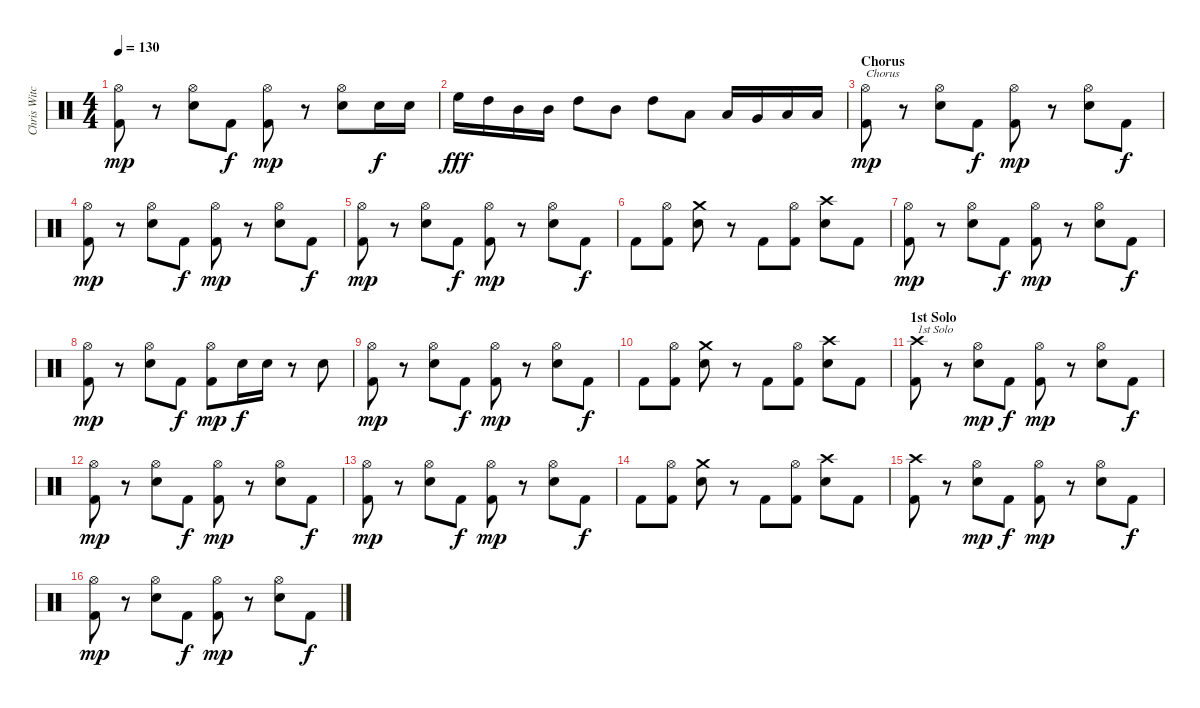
\track ("Chris Witchhunter" "Chris Witc") {instrument percussion}
\staff {score}
\articulation defaults
\ts (4 4)
\tempo 130
\clef neutral
\ks c
("Hi-Hat (open)" "Kick (hit) 2").8{dy mp} r.8 ("Hi-Hat (open)" "Electric Snare (hit)").8 "Kick (hit) 2".8{dy f} ("Hi-Hat (open)" "Kick (hit) 2").8{dy mp} r.8 ("Hi-Hat (open)" "Electric Snare (hit)").8 "Snare (hit) 2".16{dy f} "Electric Snare (hit)".16 |
"High Floor Tom (hit)".16{dy fff} "High Tom (hit)".16 "Mid Tom (hit)".16 "Mid Tom (hit)".16 "High Tom (hit)".8 "Mid Tom (hit)".8 "High Tom (hit)".8 "Low Tom (hit)".8 "Low Tom (hit)".16 "Very Low Tom (hit)".16 "Low Floor Tom (hit)".16 "Low Floor Tom (hit)".16 |
\section ("" "Chorus")
("Hi-Hat (open)" "Kick (hit) 2").8{txt "Chorus" dy mp} r.8 ("Hi-Hat (open)" "Electric Snare (hit)").8 "Kick (hit) 2".8{dy f} ("Hi-Hat (open)" "Kick (hit) 2").8{dy mp} r.8 ("Hi-Hat (open)" "Electric Snare (hit)").8 "Kick (hit) 2".8{dy f} |
("Hi-Hat (open)" "Kick (hit) 2").8{dy mp} r.8 ("Hi-Hat (open)" "Electric Snare (hit)").8 "Kick (hit) 2".8{dy f} ("Hi-Hat (open)" "Kick (hit) 2").8{dy mp} r.8 ("Hi-Hat (open)" "Electric Snare (hit)").8 "Kick (hit) 2".8{dy f} |
("Hi-Hat (open)" "Kick (hit) 2").8{dy mp} r.8 ("Hi-Hat (open)" "Electric Snare (hit)").8 "Kick (hit) 2".8{dy f} ("Hi-Hat (open)" "Kick (hit) 2").8{dy mp} r.8 ("Hi-Hat (open)" "Electric Snare (hit)").8 "Kick (hit) 2".8{dy f} |
"Kick (hit) 2".8 ("Hi-Hat (open)" "Kick (hit) 2").8 ("Crash medium (hit)" "Electric Snare (hit)").8 r.8 "Kick (hit) 2".8 ("Hi-Hat (open)" "Kick (hit) 2").8 ("Crash high (hit)" "Electric Snare (hit)").8 "Kick (hit) 2".8 |
("Hi-Hat (open)" "Kick (hit) 2").8{dy mp} r.8 ("Hi-Hat (open)" "Electric Snare (hit)").8 "Kick (hit) 2".8{dy f} ("Hi-Hat (open)" "Kick (hit) 2").8{dy mp} r.8 ("Hi-Hat (open)" "Electric Snare (hit)").8 "Kick (hit) 2".8{dy f} |
("Hi-Hat (open)" "Kick (hit) 2").8{dy mp} r.8 ("Hi-Hat (open)" "Electric Snare (hit)").8 "Kick (hit) 2".8{dy f} ("Hi-Hat (open)" "Kick (hit) 2").8{dy mp} "Electric Snare (hit)".16{dy f} "Electric Snare (hit)".16 r.8 "Electric Snare (hit)".8 |
("Hi-Hat (open)" "Kick (hit) 2").8{dy mp} r.8 ("Hi-Hat (open)" "Electric Snare (hit)").8 "Kick (hit) 2".8{dy f} ("Hi-Hat (open)" "Kick (hit) 2").8{dy mp} r.8 ("Hi-Hat (open)" "Electric Snare (hit)").8 "Kick (hit) 2".8{dy f} |
"Kick (hit) 2".8 ("Hi-Hat (open)" "Kick (hit) 2").8 ("Crash medium (hit)" "Electric Snare (hit)").8 r.8 "Kick (hit) 2".8 ("Hi-Hat (open)" "Kick (hit) 2").8 ("Crash high (hit)" "Electric Snare (hit)").8 "Kick (hit) 2".8 |
\section ("" "1st Solo")
("Crash high (hit)" "Kick (hit) 2").8{txt "1st Solo"} r.8 ("Hi-Hat (open)" "Electric Snare (hit)").8{dy mp} "Kick (hit) 2".8{dy f} ("Hi-Hat (open)" "Kick (hit) 2").8{dy mp} r.8 ("Hi-Hat (open)" "Electric Snare (hit)").8 "Kick (hit) 2".8{dy f} |
("Hi-Hat (open)" "Kick (hit) 2").8{dy mp} r.8 ("Hi-Hat (open)" "Electric Snare (hit)").8 "Kick (hit) 2".8{dy f} ("Hi-Hat (open)" "Kick (hit) 2").8{dy mp} r.8 ("Hi-Hat (open)" "Electric Snare (hit)").8 "Kick (hit) 2".8{dy f} |
("Hi-Hat (open)" "Kick (hit) 2").8{dy mp} r.8 ("Hi-Hat (open)" "Electric Snare (hit)").8 "Kick (hit) 2".8{dy f} ("Hi-Hat (open)" "Kick (hit) 2").8{dy mp} r.8 ("Hi-Hat (open)" "Electric Snare (hit)").8 "Kick (hit) 2".8{dy f} |
"Kick (hit) 2".8 ("Hi-Hat (open)" "Kick (hit) 2").8 ("Crash medium (hit)" "Electric Snare (hit)").8 r.8 "Kick (hit) 2".8 ("Hi-Hat (open)" "Kick (hit) 2").8 ("Crash high (hit)" "Electric Snare (hit)").8 "Kick (hit) 2".8 |
("Crash high (hit)" "Kick (hit) 2").8 r.8 ("Hi-Hat (open)" "Electric Snare (hit)").8{dy mp} "Kick (hit) 2".8{dy f} ("Hi-Hat (open)" "Kick (hit) 2").8{dy mp} r.8 ("Hi-Hat (open)" "Electric Snare (hit)").8 "Kick (hit) 2".8{dy f} |
("Hi-Hat (open)" "Kick (hit) 2").8{dy mp} r.8 ("Hi-Hat (open)" "Electric Snare (hit)").8 "Kick (hit) 2".8{dy f} ("Hi-Hat (open)" "Kick (hit) 2").8{dy mp} r.8 ("Hi-Hat (open)" "Electric Snare (hit)").8 "Kick (hit) 2".8{dy f}
